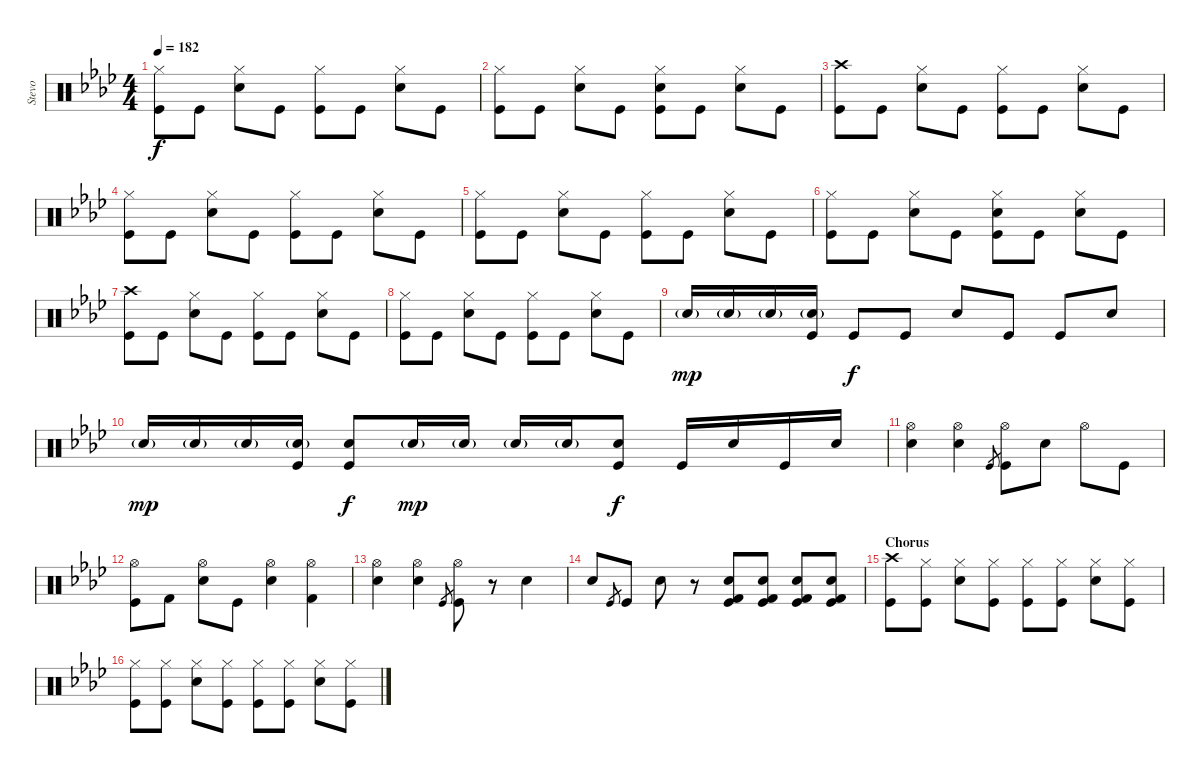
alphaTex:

\track ("Stevo" "Stevo") {instrument percussion}
\staff {score}
\articulation defaults
\ts (4 4)
\tempo 182
\clef neutral
\ks ab
("Hi-Hat (closed)" "Kick (hit)").8{dy f} "Kick (hit)".8 ("Hi-Hat (closed)" "Snare (hit) 2").8 "Kick (hit)".8 ("Hi-Hat (closed)" "Kick (hit)").8 "Kick (hit)".8 ("Hi-Hat (closed)" "Snare (hit) 2").8 "Kick (hit)".8 |
("Hi-Hat (closed)" "Kick (hit)").8 "Kick (hit)".8 ("Hi-Hat (closed)" "Snare (hit) 2").8 "Kick (hit)".8 ("Hi-Hat (closed)" "Snare (hit) 2" "Kick (hit)").8 "Kick (hit)".8 ("Hi-Hat (closed)" "Snare (hit) 2").8 "Kick (hit)".8 |
("Crash high (hit)" "Kick (hit)").8 "Kick (hit)".8 ("Hi-Hat (closed)" "Snare (hit) 2").8 "Kick (hit)".8 ("Hi-Hat (closed)" "Kick (hit)").8 "Kick (hit)".8 ("Hi-Hat (closed)" "Snare (hit) 2").8 "Kick (hit)".8 |
("Hi-Hat (closed)" "Kick (hit)").8 "Kick (hit)".8 ("Hi-Hat (closed)" "Snare (hit) 2").8 "Kick (hit)".8 ("Hi-Hat (closed)" "Kick (hit)").8 "Kick (hit)".8 ("Hi-Hat (closed)" "Snare (hit) 2").8 "Kick (hit)".8 |
("Hi-Hat (closed)" "Kick (hit)").8 "Kick (hit)".8 ("Hi-Hat (closed)" "Snare (hit) 2").8 "Kick (hit)".8 ("Hi-Hat (closed)" "Kick (hit)").8 "Kick (hit)".8 ("Hi-Hat (closed)" "Snare (hit) 2").8 "Kick (hit)".8 |
("Hi-Hat (closed)" "Kick (hit)").8 "Kick (hit)".8 ("Hi-Hat (closed)" "Snare (hit) 2").8 "Kick (hit)".8 ("Hi-Hat (closed)" "Snare (hit) 2" "Kick (hit)").8 "Kick (hit)".8 ("Hi-Hat (closed)" "Snare (hit) 2").8 "Kick (hit)".8 |
("Crash high (hit)" "Kick (hit)").8 "Kick (hit)".8 ("Hi-Hat (closed)" "Snare (hit) 2").8 "Kick (hit)".8 ("Hi-Hat (closed)" "Kick (hit)").8 "Kick (hit)".8 ("Hi-Hat (closed)" "Snare (hit) 2").8 "Kick (hit)".8 |
("Hi-Hat (closed)" "Kick (hit)").8 "Kick (hit)".8 ("Hi-Hat (closed)" "Snare (hit) 2").8 "Kick (hit)".8 ("Hi-Hat (closed)" "Kick (hit)").8 "Kick (hit)".8 ("Hi-Hat (closed)" "Snare (hit) 2").8 "Kick (hit)".8 |
"Snare (hit) 2"{g}.16{dy mp} "Snare (hit) 2"{g}.16 "Snare (hit) 2"{g}.16 ("Snare (hit) 2"{g} "Kick (hit)").16 "Kick (hit)".8{dy f} "Kick (hit)".8 "Snare (hit) 2".8 "Kick (hit)".8 "Kick (hit)".8 "Snare (hit) 2".8 |
"Snare (hit) 2"{g}.16{dy mp} "Snare (hit) 2"{g}.16 "Snare (hit) 2"{g}.16 ("Snare (hit) 2"{g} "Kick (hit)").16 ("Snare (hit) 2" "Kick (hit)").8{dy f} "Snare (hit) 2"{g}.16{dy mp} "Snare (hit) 2"{g}.16 "Snare (hit) 2"{g}.16 "Snare (hit) 2"{g}.16 ("Snare (hit) 2" "Kick (hit)").8{dy f} "Kick (hit)".16 "Snare (hit) 2".16 "Kick (hit)".16 "Snare (hit) 2".16 |
("Hi-Hat (open)" "Snare (hit) 2").4 ("Hi-Hat (open)" "Snare (hit) 2").4 "Kick (hit)".8{gr} ("Hi-Hat (open)" "Kick (hit)").8 "Snare (hit) 2".8 "Hi-Hat (open)".8 "Kick (hit)".8 |
("Hi-Hat (open)" "Kick (hit)").8 "Kick (hit) 2".8 ("Hi-Hat (open)" "Snare (hit) 2").8 "Kick (hit)".8 ("Hi-Hat (open)" "Snare (hit) 2").4 ("Hi-Hat (open)" "Kick (hit) 2").4 |
("Hi-Hat (open)" "Snare (hit) 2").4 ("Hi-Hat (open)" "Snare (hit) 2").4 "Kick (hit)".8{gr} ("Hi-Hat (open)" "Kick (hit)").8 r.8 "Snare (hit) 2".4 |
"Snare (hit) 2".8 "Kick (hit)".8{gr} "Kick (hit)".8 "Snare (hit) 2".8 r.8 ("Kick (hit) 2" "Snare (hit) 2" "Kick (hit)").8 ("Kick (hit) 2" "Snare (hit) 2" "Kick (hit)").8 ("Kick (hit) 2" "Snare (hit) 2" "Kick (hit)").8 ("Kick (hit) 2" "Snare (hit) 2" "Kick (hit)").8 |
\section ("" "Chorus")
("Crash high (hit)" "Kick (hit)").8 ("Hi-Hat (closed)" "Kick (hit)").8 ("Hi-Hat (closed)" "Snare (hit) 2").8 ("Hi-Hat (closed)" "Kick (hit)").8 ("Hi-Hat (closed)" "Kick (hit)").8 ("Hi-Hat (closed)" "Kick (hit)").8 ("Hi-Hat (closed)" "Snare (hit) 2").8 ("Hi-Hat (closed)" "Kick (hit)").8 |
("Hi-Hat (closed)" "Kick (hit)").8 ("Hi-Hat (closed)" "Kick (hit)").8 ("Hi-Hat (closed)" "Snare (hit) 2").8 ("Hi-Hat (closed)" "Kick (hit)").8 ("Hi-Hat (closed)" "Kick (hit)").8 ("Hi-Hat (closed)" "Kick (hit)").8 ("Hi-Hat (closed)" "Snare (hit) 2").8 ("Hi-Hat (closed)" "Kick (hit)").8
